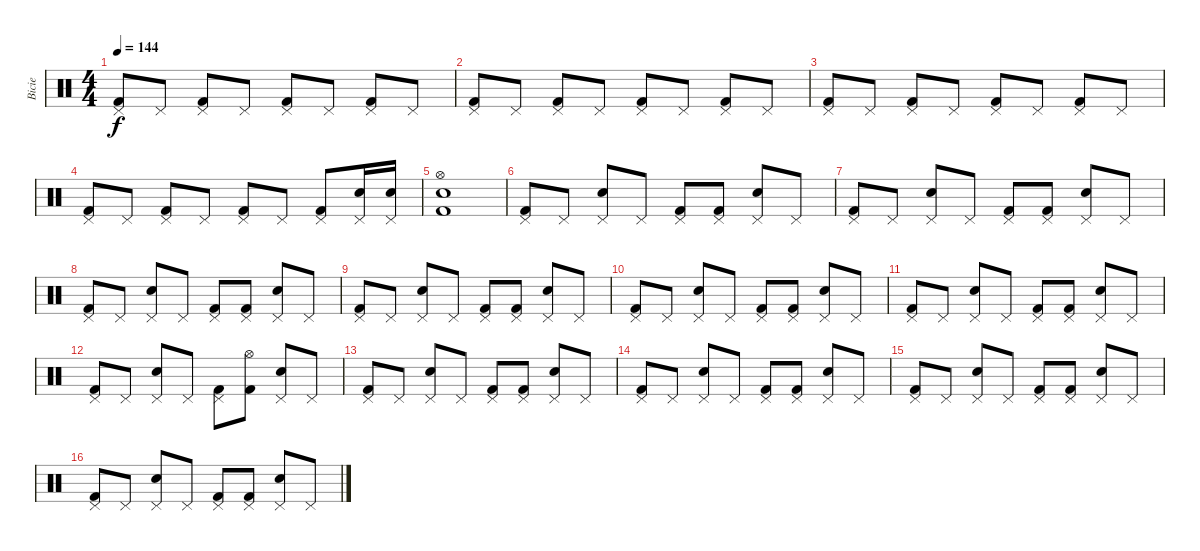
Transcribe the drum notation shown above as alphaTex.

\track ("Bicie" "Bicie") {instrument percussion}
\staff {score}
\articulation defaults
\ts (4 4)
\tempo 144
\clef neutral
\ks c
("Pedal Hi-Hat (hit)" "Kick (hit) 2").8{dy f} "Pedal Hi-Hat (hit)".8 ("Pedal Hi-Hat (hit)" "Kick (hit) 2").8 "Pedal Hi-Hat (hit)".8 ("Pedal Hi-Hat (hit)" "Kick (hit) 2").8 "Pedal Hi-Hat (hit)".8 ("Pedal Hi-Hat (hit)" "Kick (hit) 2").8 "Pedal Hi-Hat (hit)".8 |
("Pedal Hi-Hat (hit)" "Kick (hit) 2").8 "Pedal Hi-Hat (hit)".8 ("Pedal Hi-Hat (hit)" "Kick (hit) 2").8 "Pedal Hi-Hat (hit)".8 ("Pedal Hi-Hat (hit)" "Kick (hit) 2").8 "Pedal Hi-Hat (hit)".8 ("Pedal Hi-Hat (hit)" "Kick (hit) 2").8 "Pedal Hi-Hat (hit)".8 |
("Pedal Hi-Hat (hit)" "Kick (hit) 2").8 "Pedal Hi-Hat (hit)".8 ("Pedal Hi-Hat (hit)" "Kick (hit) 2").8 "Pedal Hi-Hat (hit)".8 ("Pedal Hi-Hat (hit)" "Kick (hit) 2").8 "Pedal Hi-Hat (hit)".8 ("Pedal Hi-Hat (hit)" "Kick (hit) 2").8 "Pedal Hi-Hat (hit)".8 |
("Pedal Hi-Hat (hit)" "Kick (hit) 2").8 "Pedal Hi-Hat (hit)".8 ("Pedal Hi-Hat (hit)" "Kick (hit) 2").8 "Pedal Hi-Hat (hit)".8 ("Pedal Hi-Hat (hit)" "Kick (hit) 2").8 "Pedal Hi-Hat (hit)".8 ("Pedal Hi-Hat (hit)" "Kick (hit) 2").8 ("Pedal Hi-Hat (hit)" "Snare (hit) 2").16 ("Pedal Hi-Hat (hit)" "Snare (hit) 2").16 |
("Hi-Hat (open)" "Snare (hit) 2" "Kick (hit) 2").1 |
("Pedal Hi-Hat (hit)" "Kick (hit) 2").8 "Pedal Hi-Hat (hit)".8 ("Pedal Hi-Hat (hit)" "Snare (hit) 2").8 "Pedal Hi-Hat (hit)".8 ("Pedal Hi-Hat (hit)" "Kick (hit) 2").8 ("Pedal Hi-Hat (hit)" "Kick (hit) 2").8 ("Pedal Hi-Hat (hit)" "Snare (hit) 2").8 "Pedal Hi-Hat (hit)".8 |
("Pedal Hi-Hat (hit)" "Kick (hit) 2").8 "Pedal Hi-Hat (hit)".8 ("Pedal Hi-Hat (hit)" "Snare (hit) 2").8 "Pedal Hi-Hat (hit)".8 ("Pedal Hi-Hat (hit)" "Kick (hit) 2").8 ("Pedal Hi-Hat (hit)" "Kick (hit) 2").8 ("Pedal Hi-Hat (hit)" "Snare (hit) 2").8 "Pedal Hi-Hat (hit)".8 |
("Pedal Hi-Hat (hit)" "Kick (hit) 2").8 "Pedal Hi-Hat (hit)".8 ("Pedal Hi-Hat (hit)" "Snare (hit) 2").8 "Pedal Hi-Hat (hit)".8 ("Pedal Hi-Hat (hit)" "Kick (hit) 2").8 ("Pedal Hi-Hat (hit)" "Kick (hit) 2").8 ("Pedal Hi-Hat (hit)" "Snare (hit) 2").8 "Pedal Hi-Hat (hit)".8 |
("Pedal Hi-Hat (hit)" "Kick (hit) 2").8 "Pedal Hi-Hat (hit)".8 ("Pedal Hi-Hat (hit)" "Snare (hit) 2").8 "Pedal Hi-Hat (hit)".8 ("Pedal Hi-Hat (hit)" "Kick (hit) 2").8 ("Pedal Hi-Hat (hit)" "Kick (hit) 2").8 ("Pedal Hi-Hat (hit)" "Snare (hit) 2").8 "Pedal Hi-Hat (hit)".8 |
("Pedal Hi-Hat (hit)" "Kick (hit) 2").8 "Pedal Hi-Hat (hit)".8 ("Pedal Hi-Hat (hit)" "Snare (hit) 2").8 "Pedal Hi-Hat (hit)".8 ("Pedal Hi-Hat (hit)" "Kick (hit) 2").8 ("Pedal Hi-Hat (hit)" "Kick (hit) 2").8 ("Pedal Hi-Hat (hit)" "Snare (hit) 2").8 "Pedal Hi-Hat (hit)".8 |
("Pedal Hi-Hat (hit)" "Kick (hit) 2").8 "Pedal Hi-Hat (hit)".8 ("Pedal Hi-Hat (hit)" "Snare (hit) 2").8 "Pedal Hi-Hat (hit)".8 ("Pedal Hi-Hat (hit)" "Kick (hit) 2").8 ("Pedal Hi-Hat (hit)" "Kick (hit) 2").8 ("Pedal Hi-Hat (hit)" "Snare (hit) 2").8 "Pedal Hi-Hat (hit)".8 |
("Pedal Hi-Hat (hit)" "Kick (hit) 2").8 "Pedal Hi-Hat (hit)".8 ("Pedal Hi-Hat (hit)" "Snare (hit) 2").8 "Pedal Hi-Hat (hit)".8 ("Pedal Hi-Hat (hit)" "Kick (hit) 2").8 ("Hi-Hat (open)" "Kick (hit) 2").8 ("Pedal Hi-Hat (hit)" "Snare (hit) 2").8 "Pedal Hi-Hat (hit)".8 |
("Pedal Hi-Hat (hit)" "Kick (hit) 2").8 "Pedal Hi-Hat (hit)".8 ("Pedal Hi-Hat (hit)" "Snare (hit) 2").8 "Pedal Hi-Hat (hit)".8 ("Pedal Hi-Hat (hit)" "Kick (hit) 2").8 ("Pedal Hi-Hat (hit)" "Kick (hit) 2").8 ("Pedal Hi-Hat (hit)" "Snare (hit) 2").8 "Pedal Hi-Hat (hit)".8 |
("Pedal Hi-Hat (hit)" "Kick (hit) 2").8 "Pedal Hi-Hat (hit)".8 ("Pedal Hi-Hat (hit)" "Snare (hit) 2").8 "Pedal Hi-Hat (hit)".8 ("Pedal Hi-Hat (hit)" "Kick (hit) 2").8 ("Pedal Hi-Hat (hit)" "Kick (hit) 2").8 ("Pedal Hi-Hat (hit)" "Snare (hit) 2").8 "Pedal Hi-Hat (hit)".8 |
("Pedal Hi-Hat (hit)" "Kick (hit) 2").8 "Pedal Hi-Hat (hit)".8 ("Pedal Hi-Hat (hit)" "Snare (hit) 2").8 "Pedal Hi-Hat (hit)".8 ("Pedal Hi-Hat (hit)" "Kick (hit) 2").8 ("Pedal Hi-Hat (hit)" "Kick (hit) 2").8 ("Pedal Hi-Hat (hit)" "Snare (hit) 2").8 "Pedal Hi-Hat (hit)".8 |
("Pedal Hi-Hat (hit)" "Kick (hit) 2").8 "Pedal Hi-Hat (hit)".8 ("Pedal Hi-Hat (hit)" "Snare (hit) 2").8 "Pedal Hi-Hat (hit)".8 ("Pedal Hi-Hat (hit)" "Kick (hit) 2").8 ("Pedal Hi-Hat (hit)" "Kick (hit) 2").8 ("Pedal Hi-Hat (hit)" "Snare (hit) 2").8 "Pedal Hi-Hat (hit)".8
